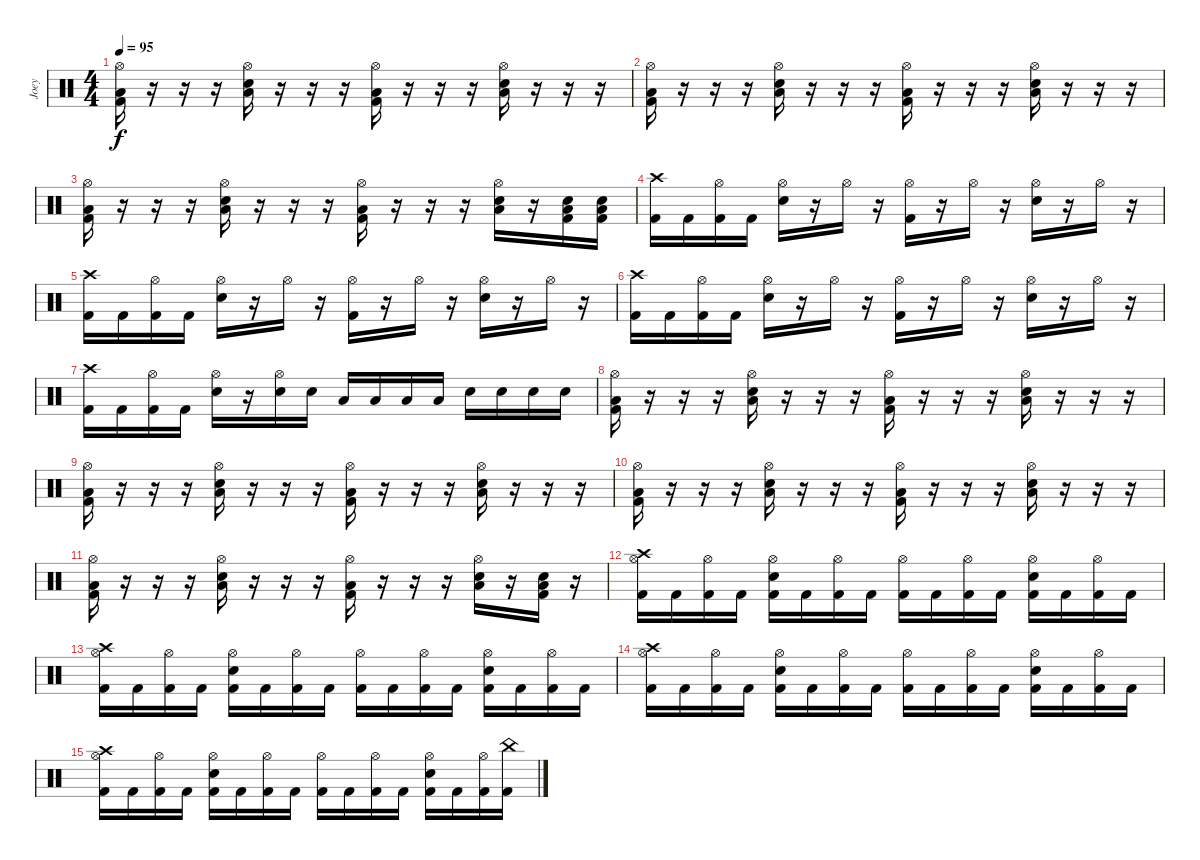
\track ("Joey" "Joey") {instrument percussion}
\staff {score}
\articulation defaults
\ts (4 4)
\tempo 95
\clef neutral
\ks c
("Hi-Hat (open)" "Low Floor Tom (hit)" "Kick (hit) 2").16{dy f} r.16 r.16 r.16 ("Hi-Hat (open)" "Low Floor Tom (hit)" "Electric Snare (hit)").16 r.16 r.16 r.16 ("Hi-Hat (open)" "Low Floor Tom (hit)" "Kick (hit) 2").16 r.16 r.16 r.16 ("Hi-Hat (open)" "Low Floor Tom (hit)" "Electric Snare (hit)").16 r.16 r.16 r.16 |
("Hi-Hat (open)" "Low Floor Tom (hit)" "Kick (hit) 2").16 r.16 r.16 r.16 ("Hi-Hat (open)" "Low Floor Tom (hit)" "Electric Snare (hit)").16 r.16 r.16 r.16 ("Hi-Hat (open)" "Low Floor Tom (hit)" "Kick (hit) 2").16 r.16 r.16 r.16 ("Hi-Hat (open)" "Low Floor Tom (hit)" "Electric Snare (hit)").16 r.16 r.16 r.16 |
("Hi-Hat (open)" "Low Floor Tom (hit)" "Kick (hit) 2").16 r.16 r.16 r.16 ("Hi-Hat (open)" "Low Floor Tom (hit)" "Electric Snare (hit)").16 r.16 r.16 r.16 ("Hi-Hat (open)" "Low Floor Tom (hit)" "Kick (hit) 2").16 r.16 r.16 r.16 ("Hi-Hat (open)" "Low Floor Tom (hit)" "Electric Snare (hit)").16 r.16 ("Low Floor Tom (hit)" "Kick (hit) 2" "Electric Snare (hit)").16 ("Low Floor Tom (hit)" "Kick (hit) 2" "Electric Snare (hit)").16 |
("Crash high (hit)" "Kick (hit) 2").16 "Kick (hit) 2".16 ("Hi-Hat (open)" "Kick (hit) 2").16 "Kick (hit) 2".16 ("Hi-Hat (open)" "Electric Snare (hit)").16 r.16 "Hi-Hat (open)".16 r.16 ("Hi-Hat (open)" "Kick (hit) 2").16 r.16 "Hi-Hat (open)".16 r.16 ("Hi-Hat (open)" "Electric Snare (hit)").16 r.16 "Hi-Hat (open)".16 r.16 |
("Crash high (hit)" "Kick (hit) 2").16 "Kick (hit) 2".16 ("Hi-Hat (open)" "Kick (hit) 2").16 "Kick (hit) 2".16 ("Hi-Hat (open)" "Electric Snare (hit)").16 r.16 "Hi-Hat (open)".16 r.16 ("Hi-Hat (open)" "Kick (hit) 2").16 r.16 "Hi-Hat (open)".16 r.16 ("Hi-Hat (open)" "Electric Snare (hit)").16 r.16 "Hi-Hat (open)".16 r.16 |
("Crash high (hit)" "Kick (hit) 2").16 "Kick (hit) 2".16 ("Hi-Hat (open)" "Kick (hit) 2").16 "Kick (hit) 2".16 ("Hi-Hat (open)" "Electric Snare (hit)").16 r.16 "Hi-Hat (open)".16 r.16 ("Hi-Hat (open)" "Kick (hit) 2").16 r.16 "Hi-Hat (open)".16 r.16 ("Hi-Hat (open)" "Electric Snare (hit)").16 r.16 "Hi-Hat (open)".16 r.16 |
("Crash high (hit)" "Kick (hit) 2").16 "Kick (hit) 2".16 ("Hi-Hat (open)" "Kick (hit) 2").16 "Kick (hit) 2".16 ("Hi-Hat (open)" "Electric Snare (hit)").16 r.16 ("Hi-Hat (open)" "Electric Snare (hit)").16 "Electric Snare (hit)".16 "Low Tom (hit)".16 "Low Tom (hit)".16 "Low Tom (hit)".16 "Low Tom (hit)".16 "Electric Snare (hit)".16 "Electric Snare (hit)".16 "Electric Snare (hit)".16 "Electric Snare (hit)".16 |
("Hi-Hat (open)" "Low Floor Tom (hit)" "Kick (hit) 2").16 r.16 r.16 r.16 ("Hi-Hat (open)" "Low Floor Tom (hit)" "Electric Snare (hit)").16 r.16 r.16 r.16 ("Hi-Hat (open)" "Low Floor Tom (hit)" "Kick (hit) 2").16 r.16 r.16 r.16 ("Hi-Hat (open)" "Low Floor Tom (hit)" "Electric Snare (hit)").16 r.16 r.16 r.16 |
("Hi-Hat (open)" "Low Floor Tom (hit)" "Kick (hit) 2").16 r.16 r.16 r.16 ("Hi-Hat (open)" "Low Floor Tom (hit)" "Electric Snare (hit)").16 r.16 r.16 r.16 ("Hi-Hat (open)" "Low Floor Tom (hit)" "Kick (hit) 2").16 r.16 r.16 r.16 ("Hi-Hat (open)" "Low Floor Tom (hit)" "Electric Snare (hit)").16 r.16 r.16 r.16 |
("Hi-Hat (open)" "Low Floor Tom (hit)" "Kick (hit) 2").16 r.16 r.16 r.16 ("Hi-Hat (open)" "Low Floor Tom (hit)" "Electric Snare (hit)").16 r.16 r.16 r.16 ("Hi-Hat (open)" "Low Floor Tom (hit)" "Kick (hit) 2").16 r.16 r.16 r.16 ("Hi-Hat (open)" "Low Floor Tom (hit)" "Electric Snare (hit)").16 r.16 r.16 r.16 |
("Hi-Hat (open)" "Low Floor Tom (hit)" "Kick (hit) 2").16 r.16 r.16 r.16 ("Hi-Hat (open)" "Low Floor Tom (hit)" "Electric Snare (hit)").16 r.16 r.16 r.16 ("Hi-Hat (open)" "Low Floor Tom (hit)" "Kick (hit) 2").16 r.16 r.16 r.16 ("Hi-Hat (open)" "Low Floor Tom (hit)" "Electric Snare (hit)").16 r.16 ("Low Floor Tom (hit)" "Kick (hit) 2" "Electric Snare (hit)").16 r.16 |
("Crash high (hit)" "Hi-Hat (open)" "Kick (hit) 2").16 "Kick (hit) 2".16 ("Hi-Hat (open)" "Kick (hit) 2").16 "Kick (hit) 2".16 ("Hi-Hat (open)" "Electric Snare (hit)" "Kick (hit) 2").16 "Kick (hit) 2".16 ("Hi-Hat (open)" "Kick (hit) 2").16 "Kick (hit) 2".16 ("Hi-Hat (open)" "Kick (hit) 2").16 "Kick (hit) 2".16 ("Hi-Hat (open)" "Kick (hit) 2").16 "Kick (hit) 2".16 ("Hi-Hat (open)" "Electric Snare (hit)" "Kick (hit) 2").16 "Kick (hit) 2".16 ("Hi-Hat (open)" "Kick (hit) 2").16 "Kick (hit) 2".16 |
("Crash high (hit)" "Hi-Hat (open)" "Kick (hit) 2").16 "Kick (hit) 2".16 ("Hi-Hat (open)" "Kick (hit) 2").16 "Kick (hit) 2".16 ("Hi-Hat (open)" "Electric Snare (hit)" "Kick (hit) 2").16 "Kick (hit) 2".16 ("Hi-Hat (open)" "Kick (hit) 2").16 "Kick (hit) 2".16 ("Hi-Hat (open)" "Kick (hit) 2").16 "Kick (hit) 2".16 ("Hi-Hat (open)" "Kick (hit) 2").16 "Kick (hit) 2".16 ("Hi-Hat (open)" "Electric Snare (hit)" "Kick (hit) 2").16 "Kick (hit) 2".16 ("Hi-Hat (open)" "Kick (hit) 2").16 "Kick (hit) 2".16 |
("Crash high (hit)" "Hi-Hat (open)" "Kick (hit) 2").16 "Kick (hit) 2".16 ("Hi-Hat (open)" "Kick (hit) 2").16 "Kick (hit) 2".16 ("Hi-Hat (open)" "Electric Snare (hit)" "Kick (hit) 2").16 "Kick (hit) 2".16 ("Hi-Hat (open)" "Kick (hit) 2").16 "Kick (hit) 2".16 ("Hi-Hat (open)" "Kick (hit) 2").16 "Kick (hit) 2".16 ("Hi-Hat (open)" "Kick (hit) 2").16 "Kick (hit) 2".16 ("Hi-Hat (open)" "Electric Snare (hit)" "Kick (hit) 2").16 "Kick (hit) 2".16 ("Hi-Hat (open)" "Kick (hit) 2").16 "Kick (hit) 2".16 |
("Crash high (hit)" "Hi-Hat (open)" "Kick (hit) 2").16 "Kick (hit) 2".16 ("Hi-Hat (open)" "Kick (hit) 2").16 "Kick (hit) 2".16 ("Hi-Hat (open)" "Electric Snare (hit)" "Kick (hit) 2").16 "Kick (hit) 2".16 ("Hi-Hat (open)" "Kick (hit) 2").16 "Kick (hit) 2".16 ("Hi-Hat (open)" "Kick (hit) 2").16 "Kick (hit) 2".16 ("Hi-Hat (open)" "Kick (hit) 2").16 "Kick (hit) 2".16 ("Hi-Hat (open)" "Electric Snare (hit)" "Kick (hit) 2").16 "Kick (hit) 2".16 ("Hi-Hat (open)" "Kick (hit) 2").16 ("China (hit)" "Kick (hit) 2").16
